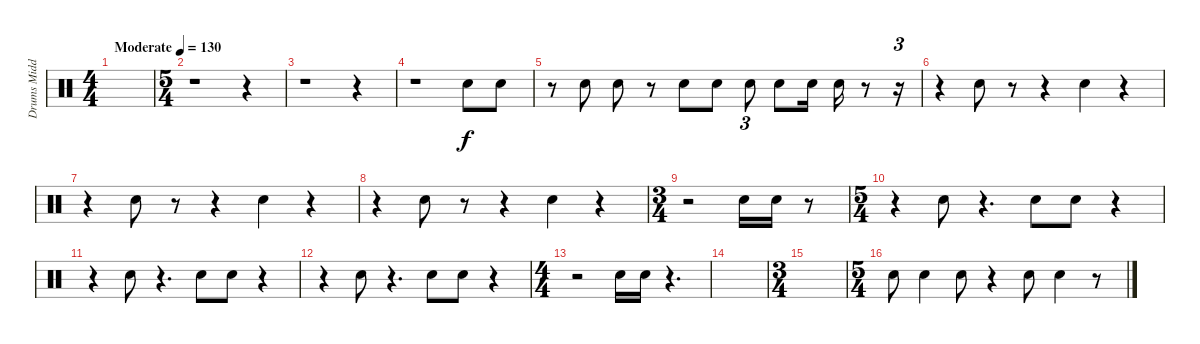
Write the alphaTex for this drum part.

\track ("Drums Middle" "Drums Midd") {instrument percussion}
\staff {score}
\articulation defaults
\ts (4 4)
\tempo (130 "Moderate")
\clef neutral
\ks c
|
\ts (5 4)
r.1 r.4 |
r.1 r.4 |
r.1 "Electric Snare (hit)".8 "Electric Snare (hit)".8 |
r.8 "Electric Snare (hit)".8 "Electric Snare (hit)".8 r.8 "Electric Snare (hit)".8 "Electric Snare (hit)".8 "Snare (hit) 2".8{tu (3 2)} "Snare (hit) 2".8 "Snare (hit) 2".16 "Snare (hit) 2".16 r.8 r.16{tu (3 2)} |
r.4 "Electric Snare (hit)".8 r.8 r.4 "Snare (hit) 2".4 r.4 |
r.4 "Electric Snare (hit)".8 r.8 r.4 "Snare (hit) 2".4 r.4 |
r.4 "Electric Snare (hit)".8 r.8 r.4 "Snare (hit) 2".4 r.4 |
\ts (3 4)
r.2 "Electric Snare (hit)".16 "Electric Snare (hit)".16 r.8 |
\ts (5 4)
r.4 "Electric Snare (hit)".8 r.4{d} "Electric Snare (hit)".8 "Electric Snare (hit)".8 r.4 |
r.4 "Electric Snare (hit)".8 r.4{d} "Electric Snare (hit)".8 "Electric Snare (hit)".8 r.4 |
r.4 "Electric Snare (hit)".8 r.4{d} "Electric Snare (hit)".8 "Electric Snare (hit)".8 r.4 |
\ts (4 4)
r.2 "Electric Snare (hit)".16 "Electric Snare (hit)".16 r.4{d} |
|
\ts (3 4)
|
\ts (5 4)
"Snare (hit) 2".8 "Snare (hit) 2".4 "Electric Snare (hit)".8 r.4 "Electric Snare (hit)".8 "Electric Snare (hit)".4 r.8
